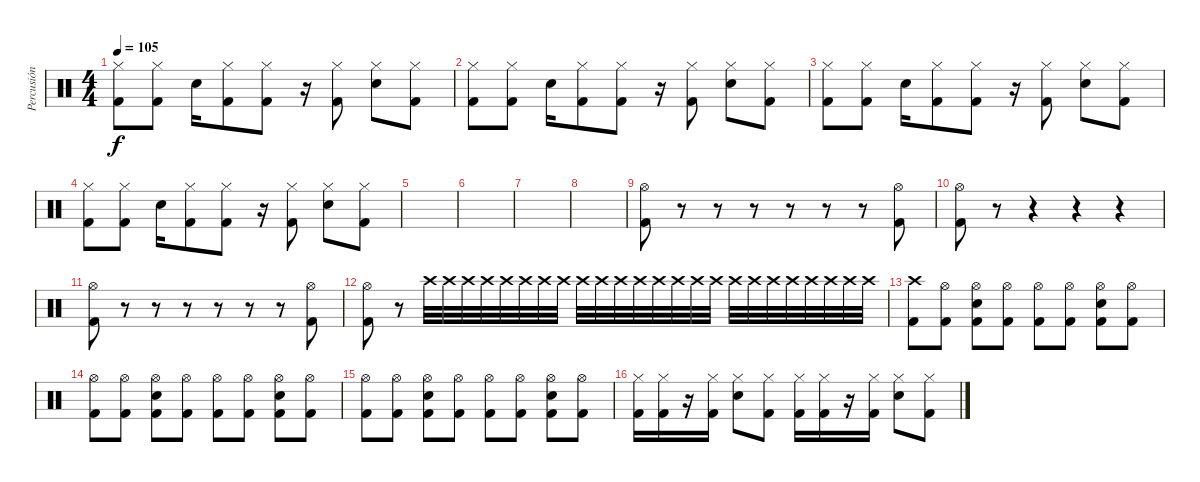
\track ("Percusión" "Percusión") {instrument percussion}
\staff {score}
\articulation defaults
\ts (4 4)
\tempo 105
\clef neutral
\ks c
("Hi-Hat (closed)" "Kick (hit) 2").8{dy f} ("Hi-Hat (closed)" "Kick (hit) 2").8 "Electric Snare (hit)".16 ("Hi-Hat (closed)" "Kick (hit) 2").8 ("Hi-Hat (closed)" "Kick (hit) 2").8 r.16 ("Hi-Hat (closed)" "Kick (hit) 2").8 ("Hi-Hat (closed)" "Electric Snare (hit)").8 ("Hi-Hat (closed)" "Kick (hit) 2").8 |
("Hi-Hat (closed)" "Kick (hit) 2").8 ("Hi-Hat (closed)" "Kick (hit) 2").8 "Electric Snare (hit)".16 ("Hi-Hat (closed)" "Kick (hit) 2").8 ("Hi-Hat (closed)" "Kick (hit) 2").8 r.16 ("Hi-Hat (closed)" "Kick (hit) 2").8 ("Hi-Hat (closed)" "Electric Snare (hit)").8 ("Hi-Hat (closed)" "Kick (hit) 2").8 |
("Hi-Hat (closed)" "Kick (hit) 2").8 ("Hi-Hat (closed)" "Kick (hit) 2").8 "Electric Snare (hit)".16 ("Hi-Hat (closed)" "Kick (hit) 2").8 ("Hi-Hat (closed)" "Kick (hit) 2").8 r.16 ("Hi-Hat (closed)" "Kick (hit) 2").8 ("Hi-Hat (closed)" "Electric Snare (hit)").8 ("Hi-Hat (closed)" "Kick (hit) 2").8 |
("Hi-Hat (closed)" "Kick (hit) 2").8 ("Hi-Hat (closed)" "Kick (hit) 2").8 "Electric Snare (hit)".16 ("Hi-Hat (closed)" "Kick (hit) 2").8 ("Hi-Hat (closed)" "Kick (hit) 2").8 r.16 ("Hi-Hat (closed)" "Kick (hit) 2").8 ("Hi-Hat (closed)" "Electric Snare (hit)").8 ("Hi-Hat (closed)" "Kick (hit) 2").8 |
|
|
|
|
("Hi-Hat (open)" "Kick (hit) 2").8 r.8 r.8 r.8 r.8 r.8 r.8 ("Hi-Hat (open)" "Kick (hit) 2").8 |
("Hi-Hat (open)" "Kick (hit) 2").8 r.8 r.4 r.4 r.4 |
("Hi-Hat (open)" "Kick (hit) 2").8 r.8 r.8 r.8 r.8 r.8 r.8 ("Hi-Hat (open)" "Kick (hit) 2").8 |
("Hi-Hat (open)" "Kick (hit) 2").8 r.8{volume 0} "Crash high (hit)".32{volume 13} "Crash high (hit)".32 "Crash high (hit)".32 "Crash high (hit)".32 "Crash high (hit)".32 "Crash high (hit)".32 "Crash high (hit)".32 "Crash high (hit)".32 "Crash high (hit)".32 "Crash high (hit)".32 "Crash high (hit)".32 "Crash high (hit)".32 "Crash high (hit)".32 "Crash high (hit)".32 "Crash high (hit)".32 "Crash high (hit)".32 "Crash high (hit)".32 "Crash high (hit)".32 "Crash high (hit)".32 "Crash high (hit)".32 "Crash high (hit)".32 "Crash high (hit)".32 "Crash high (hit)".32 "Crash high (hit)".32 |
("Crash high (hit)" "Kick (hit) 2").8 ("Hi-Hat (open)" "Kick (hit) 2").8 ("Hi-Hat (open)" "Electric Snare (hit)" "Kick (hit) 2").8 ("Hi-Hat (open)" "Kick (hit) 2").8 ("Hi-Hat (open)" "Kick (hit) 2").8 ("Hi-Hat (open)" "Kick (hit) 2").8 ("Hi-Hat (open)" "Electric Snare (hit)" "Kick (hit) 2").8 ("Hi-Hat (open)" "Kick (hit) 2").8 |
("Hi-Hat (open)" "Kick (hit) 2").8 ("Hi-Hat (open)" "Kick (hit) 2").8 ("Hi-Hat (open)" "Electric Snare (hit)" "Kick (hit) 2").8 ("Hi-Hat (open)" "Kick (hit) 2").8 ("Hi-Hat (open)" "Kick (hit) 2").8 ("Hi-Hat (open)" "Kick (hit) 2").8 ("Hi-Hat (open)" "Electric Snare (hit)" "Kick (hit) 2").8 ("Hi-Hat (open)" "Kick (hit) 2").8 |
("Hi-Hat (open)" "Kick (hit) 2").8 ("Hi-Hat (open)" "Kick (hit) 2").8 ("Hi-Hat (open)" "Electric Snare (hit)" "Kick (hit) 2").8 ("Hi-Hat (open)" "Kick (hit) 2").8 ("Hi-Hat (open)" "Kick (hit) 2").8 ("Hi-Hat (open)" "Kick (hit) 2").8 ("Hi-Hat (open)" "Electric Snare (hit)" "Kick (hit) 2").8 ("Hi-Hat (open)" "Kick (hit) 2").8 |
("Hi-Hat (closed)" "Kick (hit) 2").16 ("Hi-Hat (closed)" "Kick (hit) 2").16 r.16 ("Hi-Hat (closed)" "Kick (hit) 2").16 ("Hi-Hat (closed)" "Electric Snare (hit)").8 ("Hi-Hat (closed)" "Kick (hit) 2").8 ("Hi-Hat (closed)" "Kick (hit) 2").16 ("Hi-Hat (closed)" "Kick (hit) 2").16 r.16 ("Hi-Hat (closed)" "Kick (hit) 2").16 ("Hi-Hat (closed)" "Electric Snare (hit)").8 ("Hi-Hat (closed)" "Kick (hit) 2").8
